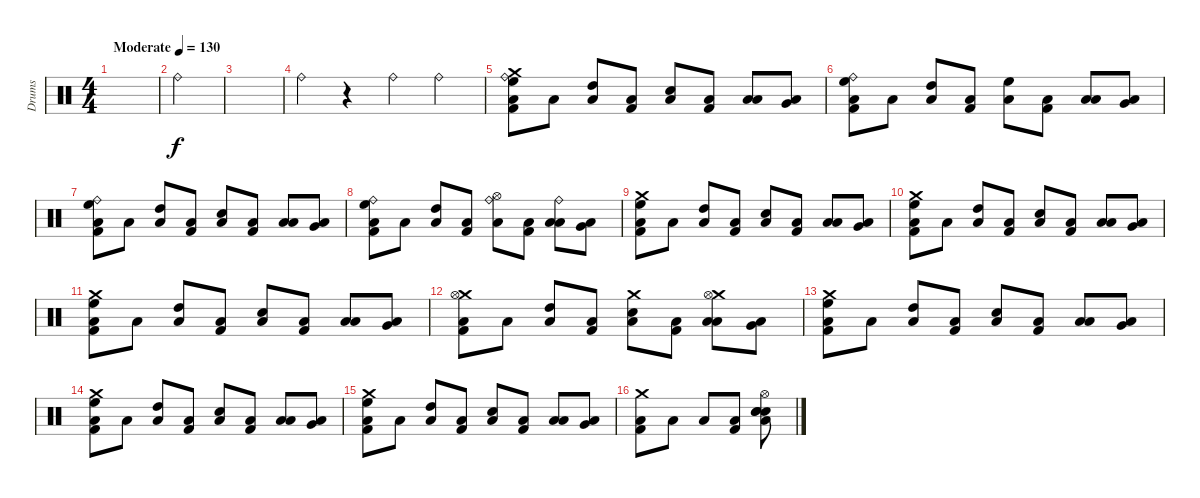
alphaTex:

\track ("Drums" "Drums") {instrument percussion}
\staff {score}
\articulation defaults
\ts (4 4)
\tempo (130 "Moderate")
\clef neutral
\ks c
|
"Ride (bell)".4 |
|
"Ride (bell)".4 r.4 "Ride (bell)".4 "Ride (bell)".4 |
("Crash medium (hit)" "Ride (bell)" "High Floor Tom (hit)" "Kick (hit) 2" "Low Floor Tom (hit)").8 "Low Floor Tom (hit)".8 ("High Tom (hit)" "Low Floor Tom (hit)").8 ("Kick (hit) 2" "Low Floor Tom (hit)").8 ("Snare (hit) 2" "Low Floor Tom (hit)").8 ("Kick (hit) 2" "Low Floor Tom (hit)").8 ("Low Tom (hit)" "Low Floor Tom (hit)").8 ("Very Low Tom (hit)" "Low Floor Tom (hit)").8 |
("Ride (bell)" "High Floor Tom (hit)" "Kick (hit) 2" "Low Floor Tom (hit)").8 "Low Floor Tom (hit)".8 ("High Tom (hit)" "Low Floor Tom (hit)").8 ("Kick (hit) 2" "Low Floor Tom (hit)").8 ("High Floor Tom (hit)" "Low Floor Tom (hit)").8 ("Kick (hit) 2" "Low Floor Tom (hit)").8 ("Low Tom (hit)" "Low Floor Tom (hit)").8 ("Very Low Tom (hit)" "Low Floor Tom (hit)").8 |
("Ride (bell)" "High Floor Tom (hit)" "Kick (hit) 2" "Low Floor Tom (hit)").8 "Low Floor Tom (hit)".8 ("High Tom (hit)" "Low Floor Tom (hit)").8 ("Kick (hit) 2" "Low Floor Tom (hit)").8 ("Snare (hit) 2" "Low Floor Tom (hit)").8 ("Kick (hit) 2" "Low Floor Tom (hit)").8 ("Low Tom (hit)" "Low Floor Tom (hit)").8 ("Very Low Tom (hit)" "Low Floor Tom (hit)").8 |
("Ride (bell)" "High Floor Tom (hit)" "Kick (hit) 2" "Low Floor Tom (hit)").8 "Low Floor Tom (hit)".8 ("High Tom (hit)" "Low Floor Tom (hit)").8 ("Kick (hit) 2" "Low Floor Tom (hit)").8 ("Ride (bell)" "Hi-Hat (open)" "Low Floor Tom (hit)").8 ("Kick (hit) 2" "Low Floor Tom (hit)").8 ("Ride (bell)" "Low Tom (hit)" "Low Floor Tom (hit)").8 ("Very Low Tom (hit)" "Low Floor Tom (hit)").8 |
("Crash medium (hit)" "High Floor Tom (hit)" "Kick (hit) 2" "Low Floor Tom (hit)").8 "Low Floor Tom (hit)".8 ("High Tom (hit)" "Low Floor Tom (hit)").8 ("Kick (hit) 2" "Low Floor Tom (hit)").8 ("Snare (hit) 2" "Low Floor Tom (hit)").8 ("Kick (hit) 2" "Low Floor Tom (hit)").8 ("Low Tom (hit)" "Low Floor Tom (hit)").8 ("Very Low Tom (hit)" "Low Floor Tom (hit)").8 |
("Crash medium (hit)" "High Floor Tom (hit)" "Kick (hit) 2" "Low Floor Tom (hit)").8 "Low Floor Tom (hit)".8 ("High Tom (hit)" "Low Floor Tom (hit)").8 ("Kick (hit) 2" "Low Floor Tom (hit)").8 ("Snare (hit) 2" "Low Floor Tom (hit)").8 ("Kick (hit) 2" "Low Floor Tom (hit)").8 ("Low Tom (hit)" "Low Floor Tom (hit)").8 ("Very Low Tom (hit)" "Low Floor Tom (hit)").8 |
("Crash medium (hit)" "High Floor Tom (hit)" "Kick (hit) 2" "Low Floor Tom (hit)").8 "Low Floor Tom (hit)".8 ("High Tom (hit)" "Low Floor Tom (hit)").8 ("Kick (hit) 2" "Low Floor Tom (hit)").8 ("Snare (hit) 2" "Low Floor Tom (hit)").8 ("Kick (hit) 2" "Low Floor Tom (hit)").8 ("Low Tom (hit)" "Low Floor Tom (hit)").8 ("Very Low Tom (hit)" "Low Floor Tom (hit)").8 |
("Crash medium (hit)" "Kick (hit) 2" "Hi-Hat (open)" "Low Floor Tom (hit)").8 "Low Floor Tom (hit)".8 ("High Tom (hit)" "Low Floor Tom (hit)").8 ("Kick (hit) 2" "Low Floor Tom (hit)").8 ("Crash medium (hit)" "Snare (hit) 2" "Low Floor Tom (hit)").8 ("Kick (hit) 2" "Low Floor Tom (hit)").8 ("Crash medium (hit)" "Low Tom (hit)" "Hi-Hat (open)" "Low Floor Tom (hit)").8 ("Very Low Tom (hit)" "Low Floor Tom (hit)").8 |
("Crash medium (hit)" "High Floor Tom (hit)" "Kick (hit) 2" "Low Floor Tom (hit)").8 "Low Floor Tom (hit)".8 ("High Tom (hit)" "Low Floor Tom (hit)").8 ("Kick (hit) 2" "Low Floor Tom (hit)").8 ("Snare (hit) 2" "Low Floor Tom (hit)").8 ("Kick (hit) 2" "Low Floor Tom (hit)").8 ("Low Tom (hit)" "Low Floor Tom (hit)").8 ("Very Low Tom (hit)" "Low Floor Tom (hit)").8 |
("Crash medium (hit)" "High Floor Tom (hit)" "Kick (hit) 2" "Low Floor Tom (hit)").8 "Low Floor Tom (hit)".8 ("High Tom (hit)" "Low Floor Tom (hit)").8 ("Kick (hit) 2" "Low Floor Tom (hit)").8 ("Snare (hit) 2" "Low Floor Tom (hit)").8 ("Kick (hit) 2" "Low Floor Tom (hit)").8 ("Low Tom (hit)" "Low Floor Tom (hit)").8 ("Very Low Tom (hit)" "Low Floor Tom (hit)").8 |
("Crash medium (hit)" "High Floor Tom (hit)" "Kick (hit) 2" "Low Floor Tom (hit)").8 "Low Floor Tom (hit)".8 ("High Tom (hit)" "Low Floor Tom (hit)").8 ("Kick (hit) 2" "Low Floor Tom (hit)").8 ("Snare (hit) 2" "Low Floor Tom (hit)").8 ("Kick (hit) 2" "Low Floor Tom (hit)").8 ("Low Tom (hit)" "Low Floor Tom (hit)").8 ("Very Low Tom (hit)" "Low Floor Tom (hit)").8 |
("Crash medium (hit)" "Kick (hit) 2" "Low Floor Tom (hit)").8 "Low Floor Tom (hit)".8 "Low Floor Tom (hit)".8 ("Kick (hit) 2" "Low Floor Tom (hit)").8 ("Snare (hit) 2" "Snare (hit) 2" "Snare (hit) 2" "Hi-Hat (open)" "Low Floor Tom (hit)").8
